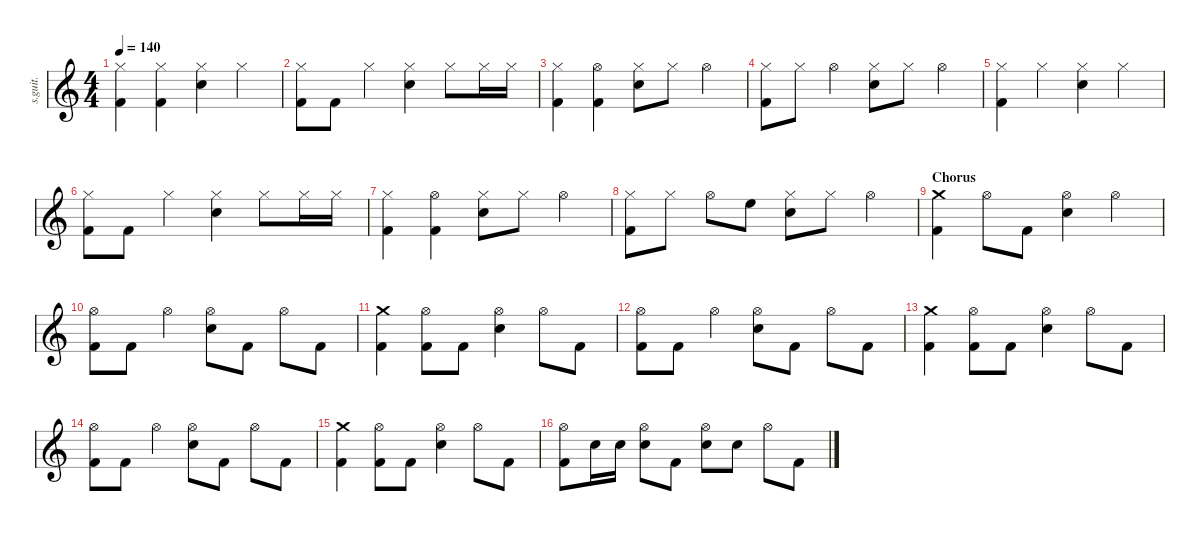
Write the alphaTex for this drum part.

\defaultSystemsLayout 4
\hideDynamics
\bracketExtendMode nobrackets
\track ("Abe Cunningham" "s.guit.") {instrument percussion}
\staff {score}
\articulation defaults
\ts (4 4)
\tempo 140
\clef g2
\ks c
("Hi-Hat (closed)" "Kick (hit) 2").4{lyrics (0 "") lyrics (1 "") lyrics (2 "") lyrics (3 "") lyrics (4 "") dy fff} ("Hi-Hat (closed)" "Kick (hit) 2").4{lyrics (0 "") lyrics (1 "") lyrics (2 "") lyrics (3 "") lyrics (4 "")} ("Hi-Hat (closed)" "Snare (hit) 2").4{lyrics (0 "") lyrics (1 "") lyrics (2 "") lyrics (3 "") lyrics (4 "")} "Hi-Hat (closed)".4{lyrics (0 "") lyrics (1 "") lyrics (2 "") lyrics (3 "") lyrics (4 "")} |
("Hi-Hat (closed)" "Kick (hit) 2").8{lyrics (0 "") lyrics (1 "") lyrics (2 "") lyrics (3 "") lyrics (4 "")} "Kick (hit) 2".8{lyrics (0 "") lyrics (1 "") lyrics (2 "") lyrics (3 "") lyrics (4 "")} "Hi-Hat (closed)".4{lyrics (0 "") lyrics (1 "") lyrics (2 "") lyrics (3 "") lyrics (4 "")} ("Hi-Hat (closed)" "Snare (hit) 2").4{lyrics (0 "") lyrics (1 "") lyrics (2 "") lyrics (3 "") lyrics (4 "")} "Hi-Hat (closed)".8{lyrics (0 "") lyrics (1 "") lyrics (2 "") lyrics (3 "") lyrics (4 "")} "Hi-Hat (closed)".16{lyrics (0 "") lyrics (1 "") lyrics (2 "") lyrics (3 "") lyrics (4 "")} "Hi-Hat (closed)".16{lyrics (0 "") lyrics (1 "") lyrics (2 "") lyrics (3 "") lyrics (4 "")} |
("Hi-Hat (closed)" "Kick (hit) 2").4{lyrics (0 "") lyrics (1 "") lyrics (2 "") lyrics (3 "") lyrics (4 "")} ("Hi-Hat (open)" "Kick (hit) 2").4{lyrics (0 "") lyrics (1 "") lyrics (2 "") lyrics (3 "") lyrics (4 "")} ("Hi-Hat (closed)" "Snare (hit) 2").8{lyrics (0 "") lyrics (1 "") lyrics (2 "") lyrics (3 "") lyrics (4 "")} "Hi-Hat (closed)".8{lyrics (0 "") lyrics (1 "") lyrics (2 "") lyrics (3 "") lyrics (4 "")} "Hi-Hat (open)".4{lyrics (0 "") lyrics (1 "") lyrics (2 "") lyrics (3 "") lyrics (4 "")} |
("Hi-Hat (closed)" "Kick (hit) 2").8{lyrics (0 "") lyrics (1 "") lyrics (2 "") lyrics (3 "") lyrics (4 "")} "Hi-Hat (closed)".8{lyrics (0 "") lyrics (1 "") lyrics (2 "") lyrics (3 "") lyrics (4 "")} "Hi-Hat (open)".4{lyrics (0 "") lyrics (1 "") lyrics (2 "") lyrics (3 "") lyrics (4 "")} ("Hi-Hat (closed)" "Snare (hit) 2").8{lyrics (0 "") lyrics (1 "") lyrics (2 "") lyrics (3 "") lyrics (4 "")} "Hi-Hat (closed)".8{lyrics (0 "") lyrics (1 "") lyrics (2 "") lyrics (3 "") lyrics (4 "")} "Hi-Hat (open)".4{lyrics (0 "") lyrics (1 "") lyrics (2 "") lyrics (3 "") lyrics (4 "")} |
("Hi-Hat (closed)" "Kick (hit) 2").4{lyrics (0 "") lyrics (1 "") lyrics (2 "") lyrics (3 "") lyrics (4 "")} "Hi-Hat (closed)".4{lyrics (0 "") lyrics (1 "") lyrics (2 "") lyrics (3 "") lyrics (4 "")} ("Hi-Hat (closed)" "Snare (hit) 2").4{lyrics (0 "") lyrics (1 "") lyrics (2 "") lyrics (3 "") lyrics (4 "")} "Hi-Hat (closed)".4{lyrics (0 "") lyrics (1 "") lyrics (2 "") lyrics (3 "") lyrics (4 "")} |
("Hi-Hat (closed)" "Kick (hit) 2").8{lyrics (0 "") lyrics (1 "") lyrics (2 "") lyrics (3 "") lyrics (4 "")} "Kick (hit) 2".8{lyrics (0 "") lyrics (1 "") lyrics (2 "") lyrics (3 "") lyrics (4 "")} "Hi-Hat (closed)".4{lyrics (0 "") lyrics (1 "") lyrics (2 "") lyrics (3 "") lyrics (4 "")} ("Hi-Hat (closed)" "Snare (hit) 2").4{lyrics (0 "") lyrics (1 "") lyrics (2 "") lyrics (3 "") lyrics (4 "")} "Hi-Hat (closed)".8{lyrics (0 "") lyrics (1 "") lyrics (2 "") lyrics (3 "") lyrics (4 "")} "Hi-Hat (closed)".16{lyrics (0 "") lyrics (1 "") lyrics (2 "") lyrics (3 "") lyrics (4 "")} "Hi-Hat (closed)".16{lyrics (0 "") lyrics (1 "") lyrics (2 "") lyrics (3 "") lyrics (4 "")} |
("Hi-Hat (closed)" "Kick (hit) 2").4{lyrics (0 "") lyrics (1 "") lyrics (2 "") lyrics (3 "") lyrics (4 "")} ("Hi-Hat (open)" "Kick (hit) 2").4{lyrics (0 "") lyrics (1 "") lyrics (2 "") lyrics (3 "") lyrics (4 "")} ("Hi-Hat (closed)" "Snare (hit) 2").8{lyrics (0 "") lyrics (1 "") lyrics (2 "") lyrics (3 "") lyrics (4 "")} "Hi-Hat (closed)".8{lyrics (0 "") lyrics (1 "") lyrics (2 "") lyrics (3 "") lyrics (4 "")} "Hi-Hat (open)".4{lyrics (0 "") lyrics (1 "") lyrics (2 "") lyrics (3 "") lyrics (4 "")} |
("Hi-Hat (closed)" "Kick (hit) 2").8{lyrics (0 "") lyrics (1 "") lyrics (2 "") lyrics (3 "") lyrics (4 "")} "Hi-Hat (closed)".8{lyrics (0 "") lyrics (1 "") lyrics (2 "") lyrics (3 "") lyrics (4 "")} "Hi-Hat (open)".8{lyrics (0 "") lyrics (1 "") lyrics (2 "") lyrics (3 "") lyrics (4 "")} "High Floor Tom (hit)".8{lyrics (0 "") lyrics (1 "") lyrics (2 "") lyrics (3 "") lyrics (4 "")} ("Hi-Hat (closed)" "Snare (hit) 2").8{lyrics (0 "") lyrics (1 "") lyrics (2 "") lyrics (3 "") lyrics (4 "")} "Hi-Hat (closed)".8{lyrics (0 "") lyrics (1 "") lyrics (2 "") lyrics (3 "") lyrics (4 "")} "Hi-Hat (open)".4{lyrics (0 "") lyrics (1 "") lyrics (2 "") lyrics (3 "") lyrics (4 "")} |
\section ("" "Chorus")
("Crash medium (hit)" "Kick (hit) 2").4{lyrics (0 "") lyrics (1 "") lyrics (2 "") lyrics (3 "") lyrics (4 "")} "Hi-Hat (open)".8{lyrics (0 "") lyrics (1 "") lyrics (2 "") lyrics (3 "") lyrics (4 "")} "Kick (hit) 2".8{lyrics (0 "") lyrics (1 "") lyrics (2 "") lyrics (3 "") lyrics (4 "")} ("Hi-Hat (open)" "Snare (hit) 2").4{lyrics (0 "") lyrics (1 "") lyrics (2 "") lyrics (3 "") lyrics (4 "")} "Hi-Hat (open)".4{lyrics (0 "") lyrics (1 "") lyrics (2 "") lyrics (3 "") lyrics (4 "")} |
("Hi-Hat (open)" "Kick (hit) 2").8{lyrics (0 "") lyrics (1 "") lyrics (2 "") lyrics (3 "") lyrics (4 "")} "Kick (hit) 2".8{lyrics (0 "") lyrics (1 "") lyrics (2 "") lyrics (3 "") lyrics (4 "")} "Hi-Hat (open)".4{lyrics (0 "") lyrics (1 "") lyrics (2 "") lyrics (3 "") lyrics (4 "")} ("Hi-Hat (open)" "Snare (hit) 2").8{lyrics (0 "") lyrics (1 "") lyrics (2 "") lyrics (3 "") lyrics (4 "")} "Kick (hit) 2".8{lyrics (0 "") lyrics (1 "") lyrics (2 "") lyrics (3 "") lyrics (4 "")} "Hi-Hat (open)".8{lyrics (0 "") lyrics (1 "") lyrics (2 "") lyrics (3 "") lyrics (4 "")} "Kick (hit) 2".8{lyrics (0 "") lyrics (1 "") lyrics (2 "") lyrics (3 "") lyrics (4 "")} |
("Crash medium (hit)" "Kick (hit) 2").4{lyrics (0 "") lyrics (1 "") lyrics (2 "") lyrics (3 "") lyrics (4 "")} ("Hi-Hat (open)" "Kick (hit) 2").8{lyrics (0 "") lyrics (1 "") lyrics (2 "") lyrics (3 "") lyrics (4 "")} "Kick (hit) 2".8{lyrics (0 "") lyrics (1 "") lyrics (2 "") lyrics (3 "") lyrics (4 "")} ("Hi-Hat (open)" "Snare (hit) 2").4{lyrics (0 "") lyrics (1 "") lyrics (2 "") lyrics (3 "") lyrics (4 "")} "Hi-Hat (open)".8{lyrics (0 "") lyrics (1 "") lyrics (2 "") lyrics (3 "") lyrics (4 "")} "Kick (hit) 2".8{lyrics (0 "") lyrics (1 "") lyrics (2 "") lyrics (3 "") lyrics (4 "")} |
("Hi-Hat (open)" "Kick (hit) 2").8{lyrics (0 "") lyrics (1 "") lyrics (2 "") lyrics (3 "") lyrics (4 "")} "Kick (hit) 2".8{lyrics (0 "") lyrics (1 "") lyrics (2 "") lyrics (3 "") lyrics (4 "")} "Hi-Hat (open)".4{lyrics (0 "") lyrics (1 "") lyrics (2 "") lyrics (3 "") lyrics (4 "")} ("Hi-Hat (open)" "Snare (hit) 2").8{lyrics (0 "") lyrics (1 "") lyrics (2 "") lyrics (3 "") lyrics (4 "")} "Kick (hit) 2".8{lyrics (0 "") lyrics (1 "") lyrics (2 "") lyrics (3 "") lyrics (4 "")} "Hi-Hat (open)".8{lyrics (0 "") lyrics (1 "") lyrics (2 "") lyrics (3 "") lyrics (4 "")} "Kick (hit) 2".8{lyrics (0 "") lyrics (1 "") lyrics (2 "") lyrics (3 "") lyrics (4 "")} |
("Crash medium (hit)" "Kick (hit) 2").4{lyrics (0 "") lyrics (1 "") lyrics (2 "") lyrics (3 "") lyrics (4 "")} ("Hi-Hat (open)" "Kick (hit) 2").8{lyrics (0 "") lyrics (1 "") lyrics (2 "") lyrics (3 "") lyrics (4 "")} "Kick (hit) 2".8{lyrics (0 "") lyrics (1 "") lyrics (2 "") lyrics (3 "") lyrics (4 "")} ("Hi-Hat (open)" "Snare (hit) 2").4{lyrics (0 "") lyrics (1 "") lyrics (2 "") lyrics (3 "") lyrics (4 "")} "Hi-Hat (open)".8{lyrics (0 "") lyrics (1 "") lyrics (2 "") lyrics (3 "") lyrics (4 "")} "Kick (hit) 2".8{lyrics (0 "") lyrics (1 "") lyrics (2 "") lyrics (3 "") lyrics (4 "")} |
("Hi-Hat (open)" "Kick (hit) 2").8{lyrics (0 "") lyrics (1 "") lyrics (2 "") lyrics (3 "") lyrics (4 "")} "Kick (hit) 2".8{lyrics (0 "") lyrics (1 "") lyrics (2 "") lyrics (3 "") lyrics (4 "")} "Hi-Hat (open)".4{lyrics (0 "") lyrics (1 "") lyrics (2 "") lyrics (3 "") lyrics (4 "")} ("Hi-Hat (open)" "Snare (hit) 2").8{lyrics (0 "") lyrics (1 "") lyrics (2 "") lyrics (3 "") lyrics (4 "")} "Kick (hit) 2".8{lyrics (0 "") lyrics (1 "") lyrics (2 "") lyrics (3 "") lyrics (4 "")} "Hi-Hat (open)".8{lyrics (0 "") lyrics (1 "") lyrics (2 "") lyrics (3 "") lyrics (4 "")} "Kick (hit) 2".8{lyrics (0 "") lyrics (1 "") lyrics (2 "") lyrics (3 "") lyrics (4 "")} |
("Crash medium (hit)" "Kick (hit) 2").4{lyrics (0 "") lyrics (1 "") lyrics (2 "") lyrics (3 "") lyrics (4 "")} ("Hi-Hat (open)" "Kick (hit) 2").8{lyrics (0 "") lyrics (1 "") lyrics (2 "") lyrics (3 "") lyrics (4 "")} "Kick (hit) 2".8{lyrics (0 "") lyrics (1 "") lyrics (2 "") lyrics (3 "") lyrics (4 "")} ("Hi-Hat (open)" "Snare (hit) 2").4{lyrics (0 "") lyrics (1 "") lyrics (2 "") lyrics (3 "") lyrics (4 "")} "Hi-Hat (open)".8{lyrics (0 "") lyrics (1 "") lyrics (2 "") lyrics (3 "") lyrics (4 "")} "Kick (hit) 2".8{lyrics (0 "") lyrics (1 "") lyrics (2 "") lyrics (3 "") lyrics (4 "")} |
("Hi-Hat (open)" "Kick (hit) 2").8{lyrics (0 "") lyrics (1 "") lyrics (2 "") lyrics (3 "") lyrics (4 "")} "Snare (hit) 2".16{lyrics (0 "") lyrics (1 "") lyrics (2 "") lyrics (3 "") lyrics (4 "")} "Snare (hit) 2".16{lyrics (0 "") lyrics (1 "") lyrics (2 "") lyrics (3 "") lyrics (4 "")} ("Hi-Hat (open)" "Snare (hit) 2").8{lyrics (0 "") lyrics (1 "") lyrics (2 "") lyrics (3 "") lyrics (4 "")} "Kick (hit) 2".8{lyrics (0 "") lyrics (1 "") lyrics (2 "") lyrics (3 "") lyrics (4 "")} ("Hi-Hat (open)" "Snare (hit) 2").8{lyrics (0 "") lyrics (1 "") lyrics (2 "") lyrics (3 "") lyrics (4 "")} "Snare (hit) 2".8{lyrics (0 "") lyrics (1 "") lyrics (2 "") lyrics (3 "") lyrics (4 "")} "Hi-Hat (open)".8{lyrics (0 "") lyrics (1 "") lyrics (2 "") lyrics (3 "") lyrics (4 "")} "Kick (hit) 2".8{lyrics (0 "") lyrics (1 "") lyrics (2 "") lyrics (3 "") lyrics (4 "")}
